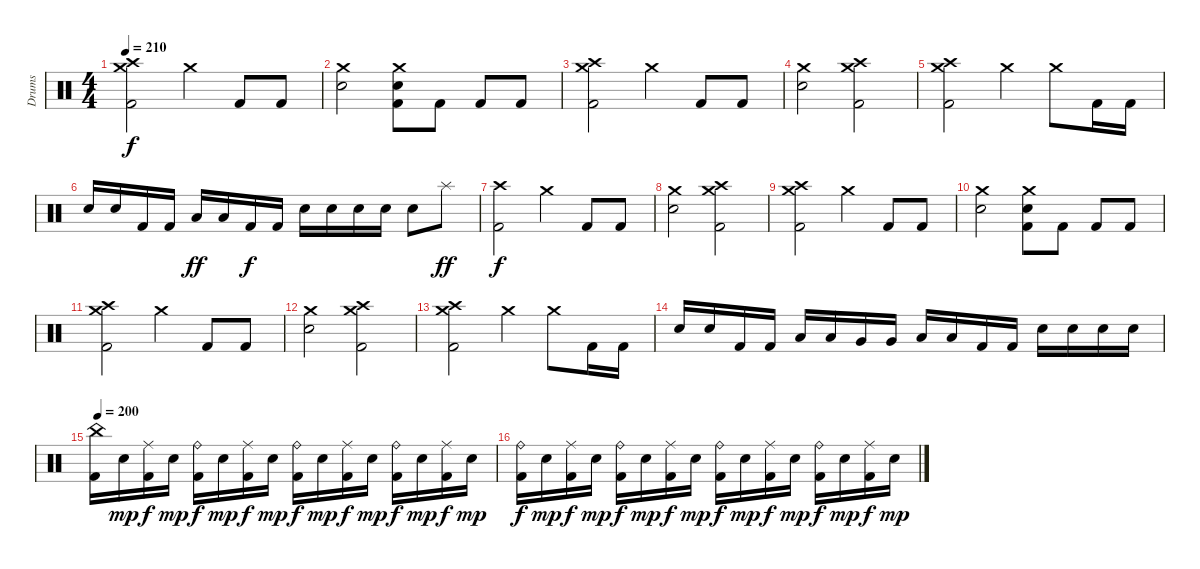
\track ("Drums" "Drums") {instrument percussion}
\staff {score}
\articulation defaults
\ts (4 4)
\tempo 210
\clef neutral
\ks c
("Crash medium (hit)" "Crash high (hit)" "Kick (hit) 2").2{dy f} "Crash medium (hit)".4 "Kick (hit) 2".8 "Kick (hit) 2".8 |
("Crash medium (hit)" "Electric Snare (hit)").2 ("Crash medium (hit)" "Kick (hit) 2" "Electric Snare (hit)").8 "Kick (hit) 2".8 "Kick (hit) 2".8 "Kick (hit) 2".8 |
("Crash high (hit)" "Crash medium (hit)" "Kick (hit) 2").2 "Crash medium (hit)".4 "Kick (hit) 2".8 "Kick (hit) 2".8 |
("Crash medium (hit)" "Electric Snare (hit)").2 ("Crash medium (hit)" "Crash high (hit)" "Kick (hit) 2").2 |
("Crash medium (hit)" "Crash high (hit)" "Kick (hit) 2").2 "Crash medium (hit)".4 "Crash medium (hit)".8 "Kick (hit) 2".16 "Kick (hit) 2".16 |
"Electric Snare (hit)".16 "Electric Snare (hit)".16 "Kick (hit) 2".16 "Kick (hit) 2".16 "Low Tom (hit)".16{dy ff} "Low Tom (hit)".16 "Kick (hit) 2".16{dy f} "Kick (hit) 2".16 "Electric Snare (hit)".16 "Electric Snare (hit)".16 "Electric Snare (hit)".16 "Electric Snare (hit)".16 "Electric Snare (hit)".8 "Splash (hit)".8{dy ff} |
("Crash high (hit)" "Kick (hit) 2").2{dy f} "Crash medium (hit)".4 "Kick (hit) 2".8 "Kick (hit) 2".8 |
("Crash medium (hit)" "Electric Snare (hit)").2 ("Crash medium (hit)" "Crash high (hit)" "Kick (hit) 2").2 |
("Crash medium (hit)" "Crash high (hit)" "Kick (hit) 2").2 "Crash medium (hit)".4 "Kick (hit) 2".8 "Kick (hit) 2".8 |
("Crash medium (hit)" "Electric Snare (hit)").2 ("Crash medium (hit)" "Kick (hit) 2" "Electric Snare (hit)").8 "Kick (hit) 2".8 "Kick (hit) 2".8 "Kick (hit) 2".8 |
("Crash high (hit)" "Crash medium (hit)" "Kick (hit) 2").2 "Crash medium (hit)".4 "Kick (hit) 2".8 "Kick (hit) 2".8 |
("Crash medium (hit)" "Electric Snare (hit)").2 ("Crash medium (hit)" "Crash high (hit)" "Kick (hit) 2").2 |
("Crash medium (hit)" "Crash high (hit)" "Kick (hit) 2").2 "Crash medium (hit)".4 "Crash medium (hit)".8 "Kick (hit) 2".16 "Kick (hit) 2".16 |
"Electric Snare (hit)".16 "Electric Snare (hit)".16 "Kick (hit) 2".16 "Kick (hit) 2".16 "Low Tom (hit)".16 "Low Tom (hit)".16 "Very Low Tom (hit)".16 "Very Low Tom (hit)".16 "Low Floor Tom (hit)".16 "Low Floor Tom (hit)".16 "Kick (hit) 2".16 "Kick (hit) 2".16 "Electric Snare (hit)".16 "Electric Snare (hit)".16 "Electric Snare (hit)".16 "Electric Snare (hit)".16 |
\tempo 200
("China (hit)" "Kick (hit) 2").16 "Electric Snare (hit)".16{dy mp} ("Ride (middle)" "Kick (hit) 2").16{dy f} "Electric Snare (hit)".16{dy mp} ("Ride (bell)" "Kick (hit) 2").16{dy f} "Electric Snare (hit)".16{dy mp} ("Ride (middle)" "Kick (hit) 2").16{dy f} "Electric Snare (hit)".16{dy mp} ("Ride (bell)" "Kick (hit) 2").16{dy f} "Electric Snare (hit)".16{dy mp} ("Ride (middle)" "Kick (hit) 2").16{dy f} "Electric Snare (hit)".16{dy mp} ("Ride (bell)" "Kick (hit) 2").16{dy f} "Electric Snare (hit)".16{dy mp} ("Ride (middle)" "Kick (hit) 2").16{dy f} "Electric Snare (hit)".16{dy mp} |
("Ride (bell)" "Kick (hit) 2").16{dy f} "Electric Snare (hit)".16{dy mp} ("Ride (middle)" "Kick (hit) 2").16{dy f} "Electric Snare (hit)".16{dy mp} ("Ride (bell)" "Kick (hit) 2").16{dy f} "Electric Snare (hit)".16{dy mp} ("Ride (middle)" "Kick (hit) 2").16{dy f} "Electric Snare (hit)".16{dy mp} ("Ride (bell)" "Kick (hit) 2").16{dy f} "Electric Snare (hit)".16{dy mp} ("Ride (middle)" "Kick (hit) 2").16{dy f} "Electric Snare (hit)".16{dy mp} ("Ride (bell)" "Kick (hit) 2").16{dy f} "Electric Snare (hit)".16{dy mp} ("Ride (middle)" "Kick (hit) 2").16{dy f} "Electric Snare (hit)".16{dy mp}
